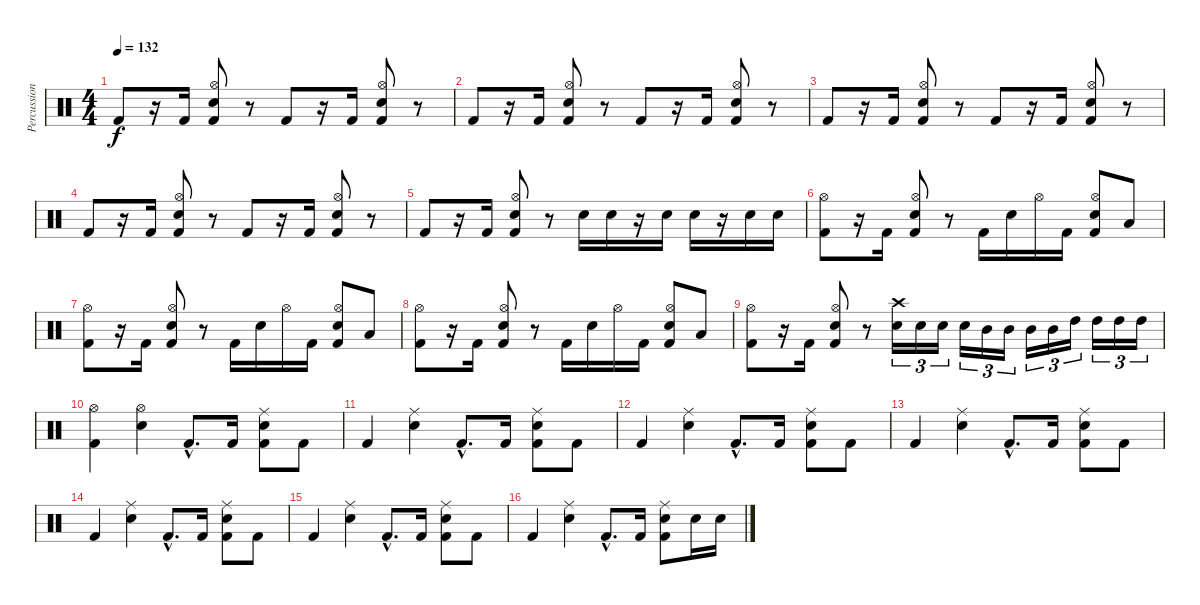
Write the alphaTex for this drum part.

\track ("Percussion" "Percussion") {instrument percussion}
\staff {score}
\articulation defaults
\ts (4 4)
\tempo 132
\clef neutral
\ks c "Kick (hit) 2".8{dy f}
r.16 "Kick (hit) 2".16 ("Hi-Hat (open)" "Snare (hit) 2" "Kick (hit) 2").8 r.8 "Kick (hit) 2".8 r.16 "Kick (hit) 2".16 ("Hi-Hat (open)" "Snare (hit) 2" "Kick (hit) 2").8 r.8 |
"Kick (hit) 2".8 r.16 "Kick (hit) 2".16 ("Hi-Hat (open)" "Snare (hit) 2" "Kick (hit) 2").8 r.8 "Kick (hit) 2".8 r.16 "Kick (hit) 2".16 ("Hi-Hat (open)" "Snare (hit) 2" "Kick (hit) 2").8 r.8 |
"Kick (hit) 2".8 r.16 "Kick (hit) 2".16 ("Hi-Hat (open)" "Snare (hit) 2" "Kick (hit) 2").8 r.8 "Kick (hit) 2".8 r.16 "Kick (hit) 2".16 ("Hi-Hat (open)" "Snare (hit) 2" "Kick (hit) 2").8 r.8 |
"Kick (hit) 2".8 r.16 "Kick (hit) 2".16 ("Hi-Hat (open)" "Snare (hit) 2" "Kick (hit) 2").8 r.8 "Kick (hit) 2".8 r.16 "Kick (hit) 2".16 ("Hi-Hat (open)" "Snare (hit) 2" "Kick (hit) 2").8 r.8 |
"Kick (hit) 2".8 r.16 "Kick (hit) 2".16 ("Hi-Hat (open)" "Snare (hit) 2" "Kick (hit) 2").8 r.8 "Electric Snare (hit)".16 "Electric Snare (hit)".16 r.16 "Electric Snare (hit)".16 "Electric Snare (hit)".16 r.16 "Electric Snare (hit)".16 "Electric Snare (hit)".16 |
("Hi-Hat (open)" "Kick (hit) 2").8 r.16 "Kick (hit) 2".16 ("Hi-Hat (open)" "Snare (hit) 2" "Kick (hit) 2").8 r.8 "Kick (hit) 2".16 "Snare (hit) 2".16 "Hi-Hat (open)".16 "Kick (hit) 2".16 ("Hi-Hat (open)" "Snare (hit) 2" "Kick (hit) 2").8 "Low Floor Tom (hit)".8 |
("Hi-Hat (open)" "Kick (hit) 2").8 r.16 "Kick (hit) 2".16 ("Hi-Hat (open)" "Snare (hit) 2" "Kick (hit) 2").8 r.8 "Kick (hit) 2".16 "Snare (hit) 2".16 "Hi-Hat (open)".16 "Kick (hit) 2".16 ("Hi-Hat (open)" "Snare (hit) 2" "Kick (hit) 2").8 "Low Floor Tom (hit)".8 |
("Hi-Hat (open)" "Kick (hit) 2").8 r.16 "Kick (hit) 2".16 ("Hi-Hat (open)" "Snare (hit) 2" "Kick (hit) 2").8 r.8 "Kick (hit) 2".16 "Snare (hit) 2".16 "Hi-Hat (open)".16 "Kick (hit) 2".16 ("Hi-Hat (open)" "Snare (hit) 2" "Kick (hit) 2").8 "Low Floor Tom (hit)".8 |
("Hi-Hat (open)" "Kick (hit) 2").8 r.16 "Kick (hit) 2".16 ("Hi-Hat (open)" "Snare (hit) 2" "Kick (hit) 2").8 r.8 ("Crash high (hit)" "Snare (hit) 2").16{tu (3 2)} "Snare (hit) 2".16{tu (3 2)} "Snare (hit) 2".16{tu (3 2)} "Snare (hit) 2".16{tu (3 2)} "Mid Tom (hit)".16{tu (3 2)} "Mid Tom (hit)".16{tu (3 2)} "Mid Tom (hit)".16{tu (3 2)} "Mid Tom (hit)".16{tu (3 2)} "High Tom (hit)".16{tu (3 2)} "High Tom (hit)".16{tu (3 2)} "High Tom (hit)".16{tu (3 2)} "High Tom (hit)".16{tu (3 2)} |
("Hi-Hat (open)" "Kick (hit) 2").4 ("Hi-Hat (open)" "Snare (hit) 2").4 "Kick (hit) 2"{hac}.8{d} "Kick (hit) 2".16 ("Ride (middle)" "Snare (hit) 2" "Kick (hit) 2").8 "Kick (hit) 2".8 |
"Kick (hit) 2".4 ("Ride (middle)" "Snare (hit) 2").4 "Kick (hit) 2"{hac}.8{d} "Kick (hit) 2".16 ("Ride (middle)" "Snare (hit) 2" "Kick (hit) 2").8 "Kick (hit) 2".8 |
"Kick (hit) 2".4 ("Ride (middle)" "Snare (hit) 2").4 "Kick (hit) 2"{hac}.8{d} "Kick (hit) 2".16 ("Ride (middle)" "Snare (hit) 2" "Kick (hit) 2").8 "Kick (hit) 2".8 |
"Kick (hit) 2".4 ("Ride (middle)" "Snare (hit) 2").4 "Kick (hit) 2"{hac}.8{d} "Kick (hit) 2".16 ("Ride (middle)" "Snare (hit) 2" "Kick (hit) 2").8 "Kick (hit) 2".8 |
"Kick (hit) 2".4 ("Ride (middle)" "Snare (hit) 2").4 "Kick (hit) 2"{hac}.8{d} "Kick (hit) 2".16 ("Ride (middle)" "Snare (hit) 2" "Kick (hit) 2").8 "Kick (hit) 2".8 |
"Kick (hit) 2".4 ("Ride (middle)" "Snare (hit) 2").4 "Kick (hit) 2"{hac}.8{d} "Kick (hit) 2".16 ("Ride (middle)" "Snare (hit) 2" "Kick (hit) 2").8 "Kick (hit) 2".8 |
"Kick (hit) 2".4 ("Ride (middle)" "Snare (hit) 2").4 "Kick (hit) 2"{hac}.8{d} "Kick (hit) 2".16 ("Ride (middle)" "Snare (hit) 2" "Kick (hit) 2").8 "Electric Snare (hit)".16 "Electric Snare (hit)".16
